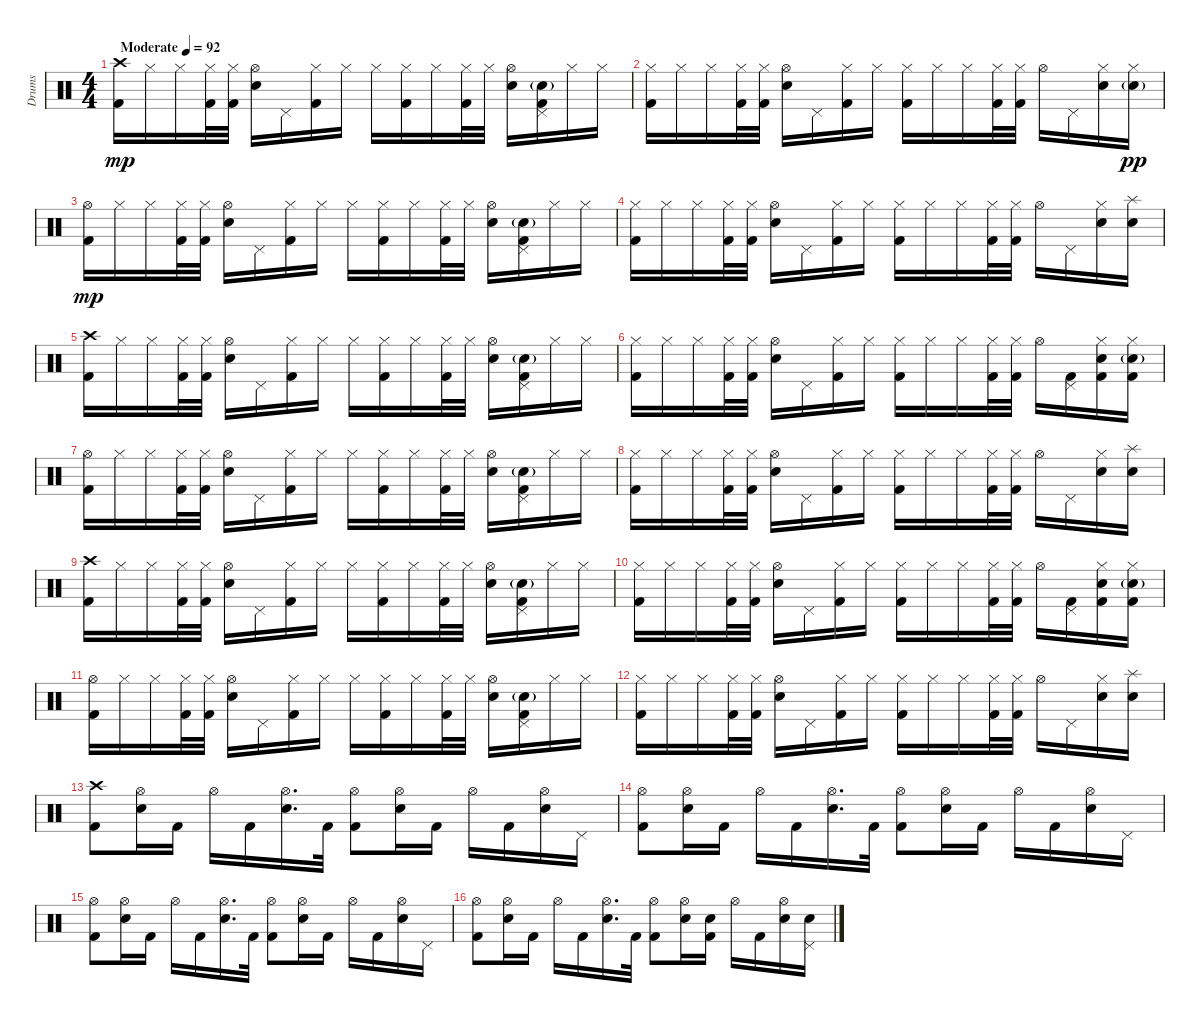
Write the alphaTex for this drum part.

\track ("Drums" "Drums") {instrument percussion}
\staff {score}
\articulation defaults
\ts (4 4)
\tempo (92 "Moderate")
\clef neutral
\ks c
("Crash high (hit)" "Kick (hit) 2").16{dy mp} "Hi-Hat (closed)".16 "Hi-Hat (closed)".16 ("Hi-Hat (closed)" "Kick (hit) 2").32 ("Hi-Hat (closed)" "Kick (hit) 2").32 ("Hi-Hat (open)" "Electric Snare (hit)").16 "Pedal Hi-Hat (hit)".16 ("Hi-Hat (closed)" "Kick (hit) 2").16 "Hi-Hat (closed)".16 "Hi-Hat (closed)".16 ("Hi-Hat (closed)" "Kick (hit) 2").16 "Hi-Hat (closed)".16 ("Hi-Hat (closed)" "Kick (hit) 2").32 "Hi-Hat (closed)".32 ("Hi-Hat (open)" "Electric Snare (hit)").16 ("Pedal Hi-Hat (hit)" "Electric Snare (hit)"{g} "Kick (hit) 2").16 "Hi-Hat (closed)".16 "Hi-Hat (closed)".16 |
("Hi-Hat (closed)" "Kick (hit) 2").16 "Hi-Hat (closed)".16 "Hi-Hat (closed)".16 ("Hi-Hat (closed)" "Kick (hit) 2").32 ("Hi-Hat (closed)" "Kick (hit) 2").32 ("Hi-Hat (open)" "Electric Snare (hit)").16 "Pedal Hi-Hat (hit)".16 ("Hi-Hat (closed)" "Kick (hit) 2").16 "Hi-Hat (closed)".16 ("Hi-Hat (closed)" "Kick (hit) 2").16 "Hi-Hat (closed)".16 "Hi-Hat (closed)".16 ("Hi-Hat (closed)" "Kick (hit) 2").32 ("Hi-Hat (closed)" "Kick (hit) 2").32 "Hi-Hat (open)".16 "Pedal Hi-Hat (hit)".16 ("Hi-Hat (closed)" "Electric Snare (hit)").16 ("Hi-Hat (closed)" "Electric Snare (hit)"{g}).16{dy pp} |
("Hi-Hat (open)" "Kick (hit) 2").16{dy mp} "Hi-Hat (closed)".16 "Hi-Hat (closed)".16 ("Hi-Hat (closed)" "Kick (hit) 2").32 ("Hi-Hat (closed)" "Kick (hit) 2").32 ("Hi-Hat (open)" "Electric Snare (hit)").16 "Pedal Hi-Hat (hit)".16 ("Hi-Hat (closed)" "Kick (hit) 2").16 "Hi-Hat (closed)".16 "Hi-Hat (closed)".16 ("Hi-Hat (closed)" "Kick (hit) 2").16 "Hi-Hat (closed)".16 ("Hi-Hat (closed)" "Kick (hit) 2").32 "Hi-Hat (closed)".32 ("Hi-Hat (open)" "Electric Snare (hit)").16 ("Pedal Hi-Hat (hit)" "Electric Snare (hit)"{g} "Kick (hit) 2").16 "Hi-Hat (closed)".16 "Hi-Hat (closed)".16 |
("Hi-Hat (closed)" "Kick (hit) 2").16 "Hi-Hat (closed)".16 "Hi-Hat (closed)".16 ("Hi-Hat (closed)" "Kick (hit) 2").32 ("Hi-Hat (closed)" "Kick (hit) 2").32 ("Hi-Hat (open)" "Electric Snare (hit)").16 "Pedal Hi-Hat (hit)".16 ("Hi-Hat (closed)" "Kick (hit) 2").16 "Hi-Hat (closed)".16 ("Hi-Hat (closed)" "Kick (hit) 2").16 "Hi-Hat (closed)".16 "Hi-Hat (closed)".16 ("Hi-Hat (closed)" "Kick (hit) 2").32 ("Hi-Hat (closed)" "Kick (hit) 2").32 "Hi-Hat (open)".16 "Pedal Hi-Hat (hit)".16 ("Hi-Hat (closed)" "Electric Snare (hit)").16 ("Splash (hit)" "Electric Snare (hit)").16 |
("Crash high (hit)" "Kick (hit) 2").16 "Hi-Hat (closed)".16 "Hi-Hat (closed)".16 ("Hi-Hat (closed)" "Kick (hit) 2").32 ("Hi-Hat (closed)" "Kick (hit) 2").32 ("Hi-Hat (open)" "Electric Snare (hit)").16 "Pedal Hi-Hat (hit)".16 ("Hi-Hat (closed)" "Kick (hit) 2").16 "Hi-Hat (closed)".16 "Hi-Hat (closed)".16 ("Hi-Hat (closed)" "Kick (hit) 2").16 "Hi-Hat (closed)".16 ("Hi-Hat (closed)" "Kick (hit) 2").32 "Hi-Hat (closed)".32 ("Hi-Hat (open)" "Electric Snare (hit)").16 ("Pedal Hi-Hat (hit)" "Electric Snare (hit)"{g} "Kick (hit) 2").16 "Hi-Hat (closed)".16 "Hi-Hat (closed)".16 |
("Hi-Hat (closed)" "Kick (hit) 2").16 "Hi-Hat (closed)".16 "Hi-Hat (closed)".16 ("Hi-Hat (closed)" "Kick (hit) 2").32 ("Hi-Hat (closed)" "Kick (hit) 2").32 ("Hi-Hat (open)" "Electric Snare (hit)").16 "Pedal Hi-Hat (hit)".16 ("Hi-Hat (closed)" "Kick (hit) 2").16 "Hi-Hat (closed)".16 ("Hi-Hat (closed)" "Kick (hit) 2").16 "Hi-Hat (closed)".16 "Hi-Hat (closed)".16 ("Hi-Hat (closed)" "Kick (hit) 2").32 ("Hi-Hat (closed)" "Kick (hit) 2").32 "Hi-Hat (open)".16 ("Pedal Hi-Hat (hit)" "Kick (hit) 2").16 ("Hi-Hat (closed)" "Electric Snare (hit)" "Kick (hit) 2").16 ("Hi-Hat (closed)" "Electric Snare (hit)"{g} "Kick (hit) 2").16 |
("Hi-Hat (open)" "Kick (hit) 2").16 "Hi-Hat (closed)".16 "Hi-Hat (closed)".16 ("Hi-Hat (closed)" "Kick (hit) 2").32 ("Hi-Hat (closed)" "Kick (hit) 2").32 ("Hi-Hat (open)" "Electric Snare (hit)").16 "Pedal Hi-Hat (hit)".16 ("Hi-Hat (closed)" "Kick (hit) 2").16 "Hi-Hat (closed)".16 "Hi-Hat (closed)".16 ("Hi-Hat (closed)" "Kick (hit) 2").16 "Hi-Hat (closed)".16 ("Hi-Hat (closed)" "Kick (hit) 2").32 "Hi-Hat (closed)".32 ("Hi-Hat (open)" "Electric Snare (hit)").16 ("Pedal Hi-Hat (hit)" "Electric Snare (hit)"{g} "Kick (hit) 2").16 "Hi-Hat (closed)".16 "Hi-Hat (closed)".16 |
("Hi-Hat (closed)" "Kick (hit) 2").16 "Hi-Hat (closed)".16 "Hi-Hat (closed)".16 ("Hi-Hat (closed)" "Kick (hit) 2").32 ("Hi-Hat (closed)" "Kick (hit) 2").32 ("Hi-Hat (open)" "Electric Snare (hit)").16 "Pedal Hi-Hat (hit)".16 ("Hi-Hat (closed)" "Kick (hit) 2").16 "Hi-Hat (closed)".16 ("Hi-Hat (closed)" "Kick (hit) 2").16 "Hi-Hat (closed)".16 "Hi-Hat (closed)".16 ("Hi-Hat (closed)" "Kick (hit) 2").32 ("Hi-Hat (closed)" "Kick (hit) 2").32 "Hi-Hat (open)".16 "Pedal Hi-Hat (hit)".16 ("Hi-Hat (closed)" "Electric Snare (hit)").16 ("Splash (hit)" "Electric Snare (hit)").16 |
("Crash high (hit)" "Kick (hit) 2").16 "Hi-Hat (closed)".16 "Hi-Hat (closed)".16 ("Hi-Hat (closed)" "Kick (hit) 2").32 ("Hi-Hat (closed)" "Kick (hit) 2").32 ("Hi-Hat (open)" "Electric Snare (hit)").16 "Pedal Hi-Hat (hit)".16 ("Hi-Hat (closed)" "Kick (hit) 2").16 "Hi-Hat (closed)".16 "Hi-Hat (closed)".16 ("Hi-Hat (closed)" "Kick (hit) 2").16 "Hi-Hat (closed)".16 ("Hi-Hat (closed)" "Kick (hit) 2").32 "Hi-Hat (closed)".32 ("Hi-Hat (open)" "Electric Snare (hit)").16 ("Pedal Hi-Hat (hit)" "Electric Snare (hit)"{g} "Kick (hit) 2").16 "Hi-Hat (closed)".16 "Hi-Hat (closed)".16 |
("Hi-Hat (closed)" "Kick (hit) 2").16 "Hi-Hat (closed)".16 "Hi-Hat (closed)".16 ("Hi-Hat (closed)" "Kick (hit) 2").32 ("Hi-Hat (closed)" "Kick (hit) 2").32 ("Hi-Hat (open)" "Electric Snare (hit)").16 "Pedal Hi-Hat (hit)".16 ("Hi-Hat (closed)" "Kick (hit) 2").16 "Hi-Hat (closed)".16 ("Hi-Hat (closed)" "Kick (hit) 2").16 "Hi-Hat (closed)".16 "Hi-Hat (closed)".16 ("Hi-Hat (closed)" "Kick (hit) 2").32 ("Hi-Hat (closed)" "Kick (hit) 2").32 "Hi-Hat (open)".16 ("Pedal Hi-Hat (hit)" "Kick (hit) 2").16 ("Hi-Hat (closed)" "Electric Snare (hit)" "Kick (hit) 2").16 ("Hi-Hat (closed)" "Electric Snare (hit)"{g} "Kick (hit) 2").16 |
("Hi-Hat (open)" "Kick (hit) 2").16 "Hi-Hat (closed)".16 "Hi-Hat (closed)".16 ("Hi-Hat (closed)" "Kick (hit) 2").32 ("Hi-Hat (closed)" "Kick (hit) 2").32 ("Hi-Hat (open)" "Electric Snare (hit)").16 "Pedal Hi-Hat (hit)".16 ("Hi-Hat (closed)" "Kick (hit) 2").16 "Hi-Hat (closed)".16 "Hi-Hat (closed)".16 ("Hi-Hat (closed)" "Kick (hit) 2").16 "Hi-Hat (closed)".16 ("Hi-Hat (closed)" "Kick (hit) 2").32 "Hi-Hat (closed)".32 ("Hi-Hat (open)" "Electric Snare (hit)").16 ("Pedal Hi-Hat (hit)" "Electric Snare (hit)"{g} "Kick (hit) 2").16 "Hi-Hat (closed)".16 "Hi-Hat (closed)".16 |
("Hi-Hat (closed)" "Kick (hit) 2").16 "Hi-Hat (closed)".16 "Hi-Hat (closed)".16 ("Hi-Hat (closed)" "Kick (hit) 2").32 ("Hi-Hat (closed)" "Kick (hit) 2").32 ("Hi-Hat (open)" "Electric Snare (hit)").16 "Pedal Hi-Hat (hit)".16 ("Hi-Hat (closed)" "Kick (hit) 2").16 "Hi-Hat (closed)".16 ("Hi-Hat (closed)" "Kick (hit) 2").16 "Hi-Hat (closed)".16 "Hi-Hat (closed)".16 ("Hi-Hat (closed)" "Kick (hit) 2").32 ("Hi-Hat (closed)" "Kick (hit) 2").32 "Hi-Hat (open)".16 "Pedal Hi-Hat (hit)".16 ("Hi-Hat (closed)" "Electric Snare (hit)").16 ("Splash (hit)" "Electric Snare (hit)").16 |
("Crash high (hit)" "Kick (hit) 2").8 ("Hi-Hat (open)" "Electric Snare (hit)").16 "Kick (hit) 2".16 "Hi-Hat (open)".16 "Kick (hit) 2".16 ("Hi-Hat (open)" "Electric Snare (hit)").16{d} "Kick (hit) 2".32 ("Hi-Hat (open)" "Kick (hit) 2").8 ("Hi-Hat (open)" "Electric Snare (hit)").16 "Kick (hit) 2".16 "Hi-Hat (open)".16 "Kick (hit) 2".16 ("Hi-Hat (open)" "Electric Snare (hit)").16 "Pedal Hi-Hat (hit)".16 |
("Hi-Hat (open)" "Kick (hit) 2").8 ("Hi-Hat (open)" "Electric Snare (hit)").16 "Kick (hit) 2".16 "Hi-Hat (open)".16 "Kick (hit) 2".16 ("Hi-Hat (open)" "Electric Snare (hit)").16{d} "Kick (hit) 2".32 ("Hi-Hat (open)" "Kick (hit) 2").8 ("Hi-Hat (open)" "Electric Snare (hit)").16 "Kick (hit) 2".16 "Hi-Hat (open)".16 "Kick (hit) 2".16 ("Hi-Hat (open)" "Electric Snare (hit)").16 "Pedal Hi-Hat (hit)".16 |
("Hi-Hat (open)" "Kick (hit) 2").8 ("Hi-Hat (open)" "Electric Snare (hit)").16 "Kick (hit) 2".16 "Hi-Hat (open)".16 "Kick (hit) 2".16 ("Hi-Hat (open)" "Electric Snare (hit)").16{d} "Kick (hit) 2".32 ("Hi-Hat (open)" "Kick (hit) 2").8 ("Hi-Hat (open)" "Electric Snare (hit)").16 "Kick (hit) 2".16 "Hi-Hat (open)".16 "Kick (hit) 2".16 ("Hi-Hat (open)" "Electric Snare (hit)").16 "Pedal Hi-Hat (hit)".16 |
("Hi-Hat (open)" "Kick (hit) 2").8 ("Hi-Hat (open)" "Electric Snare (hit)").16 "Kick (hit) 2".16 "Hi-Hat (open)".16 "Kick (hit) 2".16 ("Hi-Hat (open)" "Electric Snare (hit)").16{d} "Kick (hit) 2".32 ("Hi-Hat (open)" "Kick (hit) 2").8 ("Hi-Hat (open)" "Electric Snare (hit)").16 ("Electric Snare (hit)" "Kick (hit) 2").16 "Hi-Hat (open)".16 "Kick (hit) 2".16 ("Hi-Hat (open)" "Electric Snare (hit)").16 ("Pedal Hi-Hat (hit)" "Electric Snare (hit)").16
